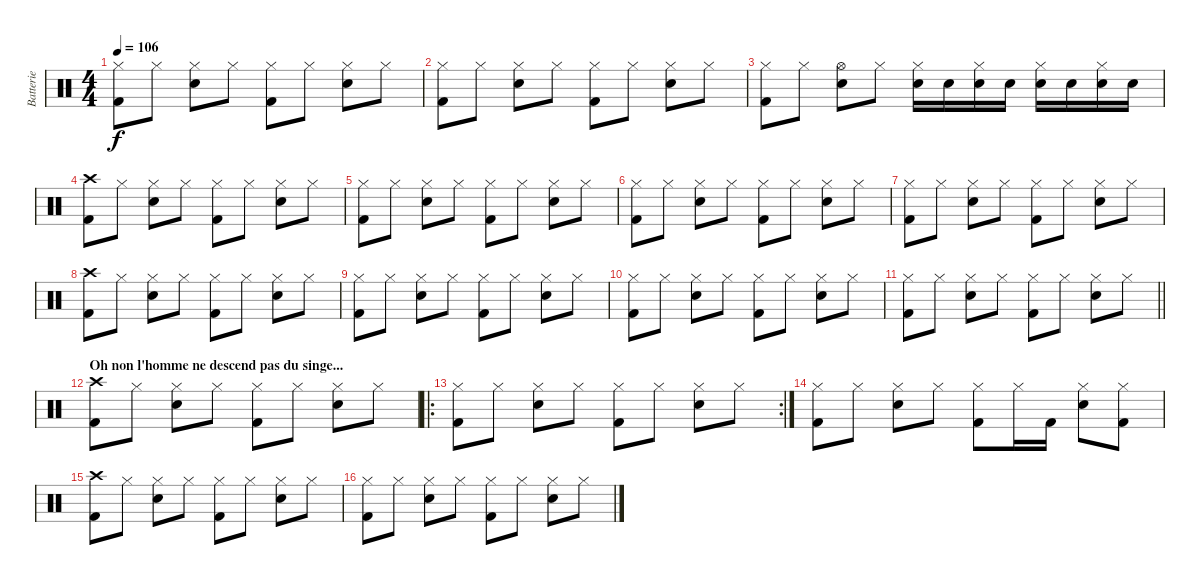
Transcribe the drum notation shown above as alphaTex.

\track ("Batterie" "Batterie") {instrument percussion}
\staff {score}
\articulation defaults
\ts (4 4)
\tempo 106
\clef neutral
\ks c
("Hi-Hat (closed)" "Kick (hit) 2").8{dy f} "Hi-Hat (closed)".8 ("Hi-Hat (closed)" "Electric Snare (hit)").8 "Hi-Hat (closed)".8 ("Hi-Hat (closed)" "Kick (hit) 2").8 "Hi-Hat (closed)".8 ("Hi-Hat (closed)" "Electric Snare (hit)").8 "Hi-Hat (closed)".8 |
("Hi-Hat (closed)" "Kick (hit) 2").8 "Hi-Hat (closed)".8 ("Hi-Hat (closed)" "Electric Snare (hit)").8 "Hi-Hat (closed)".8 ("Hi-Hat (closed)" "Kick (hit) 2").8 "Hi-Hat (closed)".8 ("Hi-Hat (closed)" "Electric Snare (hit)").8 "Hi-Hat (closed)".8 |
("Hi-Hat (closed)" "Kick (hit) 2").8 "Hi-Hat (closed)".8 ("Hi-Hat (open)" "Electric Snare (hit)").8 "Hi-Hat (closed)".8 ("Hi-Hat (closed)" "Electric Snare (hit)").16 "Electric Snare (hit)".16 ("Hi-Hat (closed)" "Electric Snare (hit)").16 "Electric Snare (hit)".16 ("Hi-Hat (closed)" "Electric Snare (hit)").16 "Electric Snare (hit)".16 ("Hi-Hat (closed)" "Electric Snare (hit)").16 "Electric Snare (hit)".16 |
("Crash high (hit)" "Kick (hit) 2").8 "Hi-Hat (closed)".8 ("Hi-Hat (closed)" "Electric Snare (hit)").8 "Hi-Hat (closed)".8 ("Hi-Hat (closed)" "Kick (hit) 2").8 "Hi-Hat (closed)".8 ("Hi-Hat (closed)" "Electric Snare (hit)").8 "Hi-Hat (closed)".8 |
("Hi-Hat (closed)" "Kick (hit) 2").8 "Hi-Hat (closed)".8 ("Hi-Hat (closed)" "Electric Snare (hit)").8 "Hi-Hat (closed)".8 ("Hi-Hat (closed)" "Kick (hit) 2").8 "Hi-Hat (closed)".8 ("Hi-Hat (closed)" "Electric Snare (hit)").8 "Hi-Hat (closed)".8 |
("Hi-Hat (closed)" "Kick (hit) 2").8 "Hi-Hat (closed)".8 ("Hi-Hat (closed)" "Electric Snare (hit)").8 "Hi-Hat (closed)".8 ("Hi-Hat (closed)" "Kick (hit) 2").8 "Hi-Hat (closed)".8 ("Hi-Hat (closed)" "Electric Snare (hit)").8 "Hi-Hat (closed)".8 |
("Hi-Hat (closed)" "Kick (hit) 2").8 "Hi-Hat (closed)".8 ("Hi-Hat (closed)" "Electric Snare (hit)").8 "Hi-Hat (closed)".8 ("Hi-Hat (closed)" "Kick (hit) 2").8 "Hi-Hat (closed)".8 ("Hi-Hat (closed)" "Electric Snare (hit)").8 "Hi-Hat (closed)".8 |
("Crash high (hit)" "Kick (hit) 2").8 "Hi-Hat (closed)".8 ("Hi-Hat (closed)" "Electric Snare (hit)").8 "Hi-Hat (closed)".8 ("Hi-Hat (closed)" "Kick (hit) 2").8 "Hi-Hat (closed)".8 ("Hi-Hat (closed)" "Electric Snare (hit)").8 "Hi-Hat (closed)".8 |
("Hi-Hat (closed)" "Kick (hit) 2").8 "Hi-Hat (closed)".8 ("Hi-Hat (closed)" "Electric Snare (hit)").8 "Hi-Hat (closed)".8 ("Hi-Hat (closed)" "Kick (hit) 2").8 "Hi-Hat (closed)".8 ("Hi-Hat (closed)" "Electric Snare (hit)").8 "Hi-Hat (closed)".8 |
("Hi-Hat (closed)" "Kick (hit) 2").8 "Hi-Hat (closed)".8 ("Hi-Hat (closed)" "Electric Snare (hit)").8 "Hi-Hat (closed)".8 ("Hi-Hat (closed)" "Kick (hit) 2").8 "Hi-Hat (closed)".8 ("Hi-Hat (closed)" "Electric Snare (hit)").8 "Hi-Hat (closed)".8 |
\barLineRight lightlight
("Hi-Hat (closed)" "Kick (hit) 2").8 "Hi-Hat (closed)".8 ("Hi-Hat (closed)" "Electric Snare (hit)").8 "Hi-Hat (closed)".8 ("Hi-Hat (closed)" "Kick (hit) 2").8 "Hi-Hat (closed)".8 ("Hi-Hat (closed)" "Electric Snare (hit)").8 "Hi-Hat (closed)".8 |
\section ("" "Oh non l'homme ne descend pas du singe... ")
("Crash high (hit)" "Kick (hit) 2").8 "Hi-Hat (closed)".8 ("Hi-Hat (closed)" "Electric Snare (hit)").8 "Hi-Hat (closed)".8 ("Hi-Hat (closed)" "Kick (hit) 2").8 "Hi-Hat (closed)".8 ("Hi-Hat (closed)" "Electric Snare (hit)").8 "Hi-Hat (closed)".8 |
\ro
\rc 2
("Hi-Hat (closed)" "Kick (hit) 2").8 "Hi-Hat (closed)".8 ("Hi-Hat (closed)" "Electric Snare (hit)").8 "Hi-Hat (closed)".8 ("Hi-Hat (closed)" "Kick (hit) 2").8 "Hi-Hat (closed)".8 ("Hi-Hat (closed)" "Electric Snare (hit)").8 "Hi-Hat (closed)".8 |
("Hi-Hat (closed)" "Kick (hit) 2").8 "Hi-Hat (closed)".8 ("Hi-Hat (closed)" "Electric Snare (hit)").8 "Hi-Hat (closed)".8 ("Hi-Hat (closed)" "Kick (hit) 2").8 "Hi-Hat (closed)".16 "Kick (hit) 2".16 ("Hi-Hat (closed)" "Electric Snare (hit)").8 ("Hi-Hat (closed)" "Kick (hit) 2").8 |
("Crash high (hit)" "Kick (hit) 2").8 "Hi-Hat (closed)".8 ("Hi-Hat (closed)" "Electric Snare (hit)").8 "Hi-Hat (closed)".8 ("Hi-Hat (closed)" "Kick (hit) 2").8 "Hi-Hat (closed)".8 ("Hi-Hat (closed)" "Electric Snare (hit)").8 "Hi-Hat (closed)".8 |
("Hi-Hat (closed)" "Kick (hit) 2").8 "Hi-Hat (closed)".8 ("Hi-Hat (closed)" "Electric Snare (hit)").8 "Hi-Hat (closed)".8 ("Hi-Hat (closed)" "Kick (hit) 2").8 "Hi-Hat (closed)".8 ("Hi-Hat (closed)" "Electric Snare (hit)").8 "Hi-Hat (closed)".8
